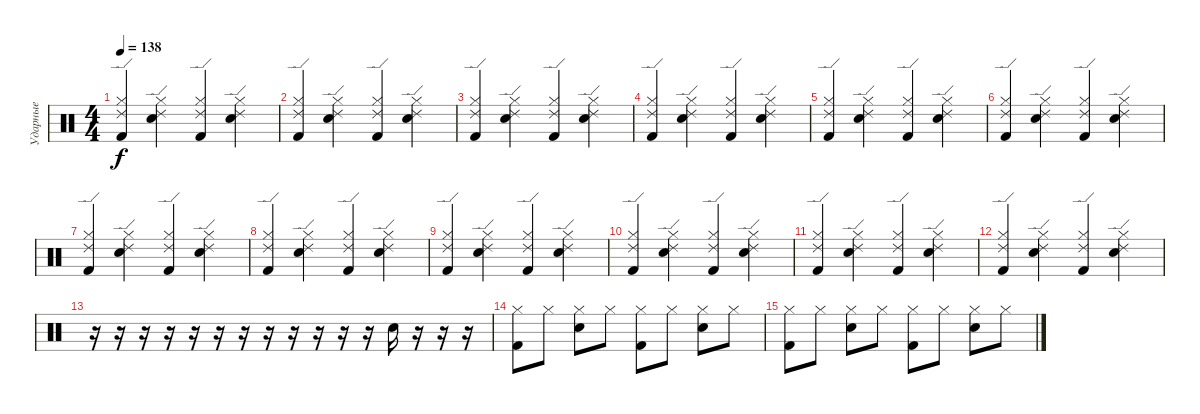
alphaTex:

\track ("Ударные" "Ударные") {instrument percussion}
\staff {score}
\articulation defaults
\ts (4 4)
\tempo 138
\clef neutral
\ks c
("Kick (hit) 2" "Hi-Hat (closed)" "Ride (edge) 2").4{dy f} ("Snare (hit) 2" "Hi-Hat (closed)" "Ride (edge) 2").4 ("Kick (hit) 2" "Hi-Hat (closed)" "Ride (edge) 2").4 ("Snare (hit) 2" "Hi-Hat (closed)" "Ride (edge) 2").4 |
("Kick (hit) 2" "Hi-Hat (closed)" "Ride (edge) 2").4 ("Snare (hit) 2" "Hi-Hat (closed)" "Ride (edge) 2").4 ("Kick (hit) 2" "Hi-Hat (closed)" "Ride (edge) 2").4 ("Snare (hit) 2" "Hi-Hat (closed)" "Ride (edge) 2").4 |
("Kick (hit) 2" "Hi-Hat (closed)" "Ride (edge) 2").4 ("Snare (hit) 2" "Hi-Hat (closed)" "Ride (edge) 2").4 ("Kick (hit) 2" "Hi-Hat (closed)" "Ride (edge) 2").4 ("Snare (hit) 2" "Hi-Hat (closed)" "Ride (edge) 2").4 |
("Kick (hit) 2" "Hi-Hat (closed)" "Ride (edge) 2").4 ("Snare (hit) 2" "Hi-Hat (closed)" "Ride (edge) 2").4 ("Kick (hit) 2" "Hi-Hat (closed)" "Ride (edge) 2").4 ("Snare (hit) 2" "Hi-Hat (closed)" "Ride (edge) 2").4 |
("Kick (hit) 2" "Hi-Hat (closed)" "Ride (edge) 2").4 ("Snare (hit) 2" "Hi-Hat (closed)" "Ride (edge) 2").4 ("Kick (hit) 2" "Hi-Hat (closed)" "Ride (edge) 2").4 ("Snare (hit) 2" "Hi-Hat (closed)" "Ride (edge) 2").4 |
("Kick (hit) 2" "Hi-Hat (closed)" "Ride (edge) 2").4 ("Snare (hit) 2" "Hi-Hat (closed)" "Ride (edge) 2").4 ("Kick (hit) 2" "Hi-Hat (closed)" "Ride (edge) 2").4 ("Snare (hit) 2" "Hi-Hat (closed)" "Ride (edge) 2").4 |
("Kick (hit) 2" "Hi-Hat (closed)" "Ride (edge) 2").4 ("Snare (hit) 2" "Hi-Hat (closed)" "Ride (edge) 2").4 ("Kick (hit) 2" "Hi-Hat (closed)" "Ride (edge) 2").4 ("Snare (hit) 2" "Hi-Hat (closed)" "Ride (edge) 2").4 |
("Kick (hit) 2" "Hi-Hat (closed)" "Ride (edge) 2").4 ("Snare (hit) 2" "Hi-Hat (closed)" "Ride (edge) 2").4 ("Kick (hit) 2" "Hi-Hat (closed)" "Ride (edge) 2").4 ("Snare (hit) 2" "Hi-Hat (closed)" "Ride (edge) 2").4 |
("Kick (hit) 2" "Hi-Hat (closed)" "Ride (edge) 2").4 ("Snare (hit) 2" "Hi-Hat (closed)" "Ride (edge) 2").4 ("Kick (hit) 2" "Hi-Hat (closed)" "Ride (edge) 2").4 ("Snare (hit) 2" "Hi-Hat (closed)" "Ride (edge) 2").4 |
("Kick (hit) 2" "Hi-Hat (closed)" "Ride (edge) 2").4 ("Snare (hit) 2" "Hi-Hat (closed)" "Ride (edge) 2").4 ("Kick (hit) 2" "Hi-Hat (closed)" "Ride (edge) 2").4 ("Snare (hit) 2" "Hi-Hat (closed)" "Ride (edge) 2").4 |
("Kick (hit) 2" "Hi-Hat (closed)" "Ride (edge) 2").4 ("Snare (hit) 2" "Hi-Hat (closed)" "Ride (edge) 2").4 ("Kick (hit) 2" "Hi-Hat (closed)" "Ride (edge) 2").4 ("Snare (hit) 2" "Hi-Hat (closed)" "Ride (edge) 2").4 |
("Kick (hit) 2" "Hi-Hat (closed)" "Ride (edge) 2").4 ("Snare (hit) 2" "Hi-Hat (closed)" "Ride (edge) 2").4 ("Kick (hit) 2" "Hi-Hat (closed)" "Ride (edge) 2").4 ("Snare (hit) 2" "Hi-Hat (closed)" "Ride (edge) 2").4 |
r.16 r.16 r.16 r.16 r.16 r.16 r.16 r.16 r.16 r.16 r.16 r.16 "Snare (hit) 2".16 r.16 r.16 r.16 |
("Hi-Hat (closed)" "Kick (hit) 2").8 "Hi-Hat (closed)".8 ("Hi-Hat (closed)" "Snare (hit) 2").8 "Hi-Hat (closed)".8 ("Hi-Hat (closed)" "Kick (hit) 2").8 "Hi-Hat (closed)".8 ("Hi-Hat (closed)" "Snare (hit) 2").8 "Hi-Hat (closed)".8 |
("Hi-Hat (closed)" "Kick (hit) 2").8 "Hi-Hat (closed)".8 ("Hi-Hat (closed)" "Snare (hit) 2").8 "Hi-Hat (closed)".8 ("Hi-Hat (closed)" "Kick (hit) 2").8 "Hi-Hat (closed)".8 ("Hi-Hat (closed)" "Snare (hit) 2").8 "Hi-Hat (closed)".8
